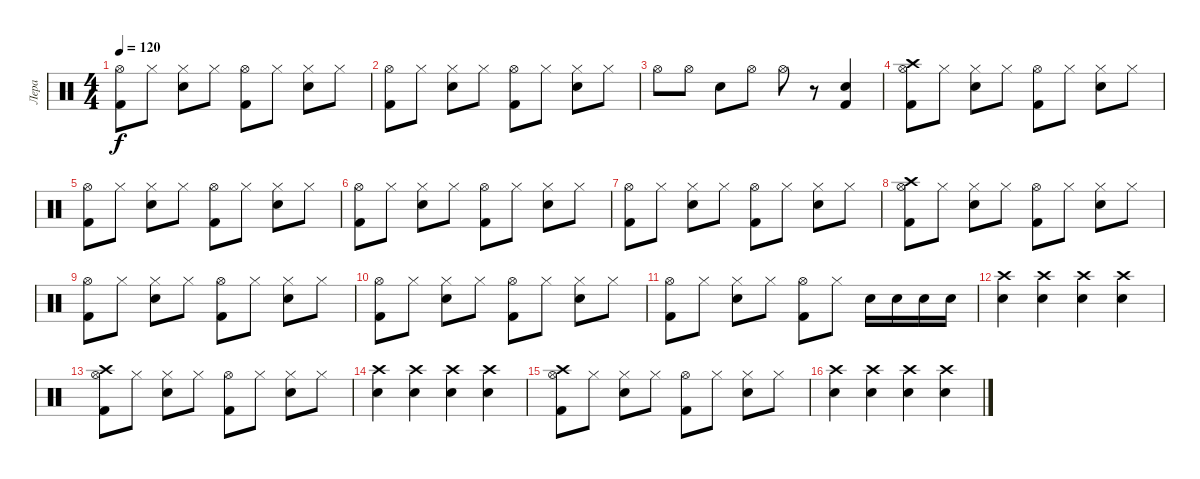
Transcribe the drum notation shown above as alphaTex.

\track ("Лера" "Лера") {instrument percussion}
\staff {score}
\articulation defaults
\ts (4 4)
\tempo 120
\clef neutral
\ks c
("Hi-Hat (open)" "Kick (hit) 2").8{dy f} "Hi-Hat (closed)".8 ("Hi-Hat (closed)" "Electric Snare (hit)").8 "Hi-Hat (closed)".8 ("Hi-Hat (open)" "Kick (hit) 2").8 "Hi-Hat (closed)".8 ("Hi-Hat (closed)" "Electric Snare (hit)").8 "Hi-Hat (closed)".8 |
("Hi-Hat (open)" "Kick (hit) 2").8 "Hi-Hat (closed)".8 ("Hi-Hat (closed)" "Electric Snare (hit)").8 "Hi-Hat (closed)".8 ("Hi-Hat (open)" "Kick (hit) 2").8 "Hi-Hat (closed)".8 ("Hi-Hat (closed)" "Electric Snare (hit)").8 "Hi-Hat (closed)".8 |
"Hi-Hat (open)".8 "Hi-Hat (open)".8 "Electric Snare (hit)".8 "Hi-Hat (open)".8 "Hi-Hat (open)".8 r.8 ("Electric Snare (hit)" "Kick (hit) 2").4 |
("Hi-Hat (open)" "Kick (hit) 2" "Crash high (hit)").8 "Hi-Hat (closed)".8 ("Hi-Hat (closed)" "Electric Snare (hit)").8 "Hi-Hat (closed)".8 ("Hi-Hat (open)" "Kick (hit) 2").8 "Hi-Hat (closed)".8 ("Hi-Hat (closed)" "Electric Snare (hit)").8 "Hi-Hat (closed)".8 |
("Hi-Hat (open)" "Kick (hit) 2").8 "Hi-Hat (closed)".8 ("Hi-Hat (closed)" "Electric Snare (hit)").8 "Hi-Hat (closed)".8 ("Hi-Hat (open)" "Kick (hit) 2").8 "Hi-Hat (closed)".8 ("Hi-Hat (closed)" "Electric Snare (hit)").8 "Hi-Hat (closed)".8 |
("Hi-Hat (open)" "Kick (hit) 2").8 "Hi-Hat (closed)".8 ("Hi-Hat (closed)" "Electric Snare (hit)").8 "Hi-Hat (closed)".8 ("Hi-Hat (open)" "Kick (hit) 2").8 "Hi-Hat (closed)".8 ("Hi-Hat (closed)" "Electric Snare (hit)").8 "Hi-Hat (closed)".8 |
("Hi-Hat (open)" "Kick (hit) 2").8 "Hi-Hat (closed)".8 ("Hi-Hat (closed)" "Electric Snare (hit)").8 "Hi-Hat (closed)".8 ("Hi-Hat (open)" "Kick (hit) 2").8 "Hi-Hat (closed)".8 ("Hi-Hat (closed)" "Electric Snare (hit)").8 "Hi-Hat (closed)".8 |
("Hi-Hat (open)" "Kick (hit) 2" "Crash high (hit)").8 "Hi-Hat (closed)".8 ("Hi-Hat (closed)" "Electric Snare (hit)").8 "Hi-Hat (closed)".8 ("Hi-Hat (open)" "Kick (hit) 2").8 "Hi-Hat (closed)".8 ("Hi-Hat (closed)" "Electric Snare (hit)").8 "Hi-Hat (closed)".8 |
("Hi-Hat (open)" "Kick (hit) 2").8 "Hi-Hat (closed)".8 ("Hi-Hat (closed)" "Electric Snare (hit)").8 "Hi-Hat (closed)".8 ("Hi-Hat (open)" "Kick (hit) 2").8 "Hi-Hat (closed)".8 ("Hi-Hat (closed)" "Electric Snare (hit)").8 "Hi-Hat (closed)".8 |
("Hi-Hat (open)" "Kick (hit) 2").8 "Hi-Hat (closed)".8 ("Hi-Hat (closed)" "Electric Snare (hit)").8 "Hi-Hat (closed)".8 ("Hi-Hat (open)" "Kick (hit) 2").8 "Hi-Hat (closed)".8 ("Hi-Hat (closed)" "Electric Snare (hit)").8 "Hi-Hat (closed)".8 |
("Hi-Hat (open)" "Kick (hit) 2").8 "Hi-Hat (closed)".8 ("Hi-Hat (closed)" "Electric Snare (hit)").8 "Hi-Hat (closed)".8 ("Hi-Hat (open)" "Kick (hit) 2").8 "Hi-Hat (closed)".8 "Electric Snare (hit)".16 "Electric Snare (hit)".16 "Electric Snare (hit)".16 "Electric Snare (hit)".16 |
("Electric Snare (hit)" "Crash high (hit)").4 ("Electric Snare (hit)" "Crash high (hit)").4 ("Electric Snare (hit)" "Crash high (hit)").4 ("Electric Snare (hit)" "Crash high (hit)").4 |
("Hi-Hat (open)" "Kick (hit) 2" "Crash high (hit)").8 "Hi-Hat (closed)".8 ("Hi-Hat (closed)" "Electric Snare (hit)").8 "Hi-Hat (closed)".8 ("Hi-Hat (open)" "Kick (hit) 2").8 "Hi-Hat (closed)".8 ("Hi-Hat (closed)" "Electric Snare (hit)").8 "Hi-Hat (closed)".8 |
("Electric Snare (hit)" "Crash high (hit)").4 ("Electric Snare (hit)" "Crash high (hit)").4 ("Electric Snare (hit)" "Crash high (hit)").4 ("Electric Snare (hit)" "Crash high (hit)").4 |
("Hi-Hat (open)" "Kick (hit) 2" "Crash high (hit)").8 "Hi-Hat (closed)".8 ("Hi-Hat (closed)" "Electric Snare (hit)").8 "Hi-Hat (closed)".8 ("Hi-Hat (open)" "Kick (hit) 2").8 "Hi-Hat (closed)".8 ("Hi-Hat (closed)" "Electric Snare (hit)").8 "Hi-Hat (closed)".8 |
("Electric Snare (hit)" "Crash high (hit)").4 ("Electric Snare (hit)" "Crash high (hit)").4 ("Electric Snare (hit)" "Crash high (hit)").4 ("Electric Snare (hit)" "Crash high (hit)").4
